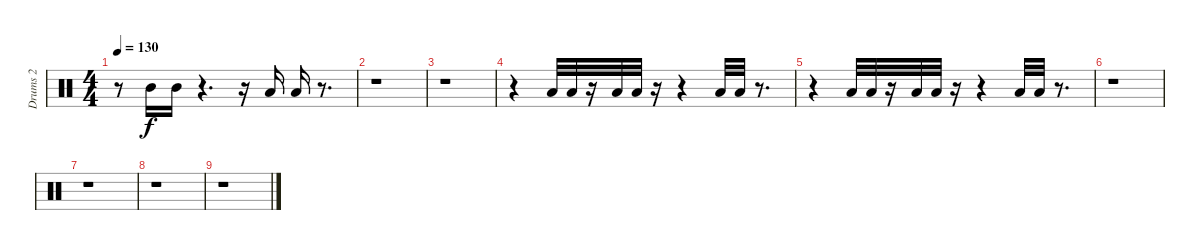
\track ("Drums 2" "Drums 2") {instrument percussion}
\staff {score}
\articulation defaults
\ts (4 4)
\tempo 130
\clef neutral
\ks c
r.8{dy f} "Mid Tom (hit)".16 "Mid Tom (hit)".16 r.4{d} r.16 "Low Tom (hit)".16 "Low Tom (hit)".16 r.8{d} |
r.1 |
r.1 |
r.4 "Low Tom (hit)".32 "Low Tom (hit)".32 r.16 "Low Tom (hit)".32 "Low Tom (hit)".32 r.16 r.4 "Low Tom (hit)".32 "Low Tom (hit)".32 r.8{d} |
r.4 "Low Tom (hit)".32 "Low Tom (hit)".32 r.16 "Low Tom (hit)".32 "Low Tom (hit)".32 r.16 r.4 "Low Tom (hit)".32 "Low Tom (hit)".32 r.8{d} |
r.1 |
r.1 |
r.1 |
r.1
